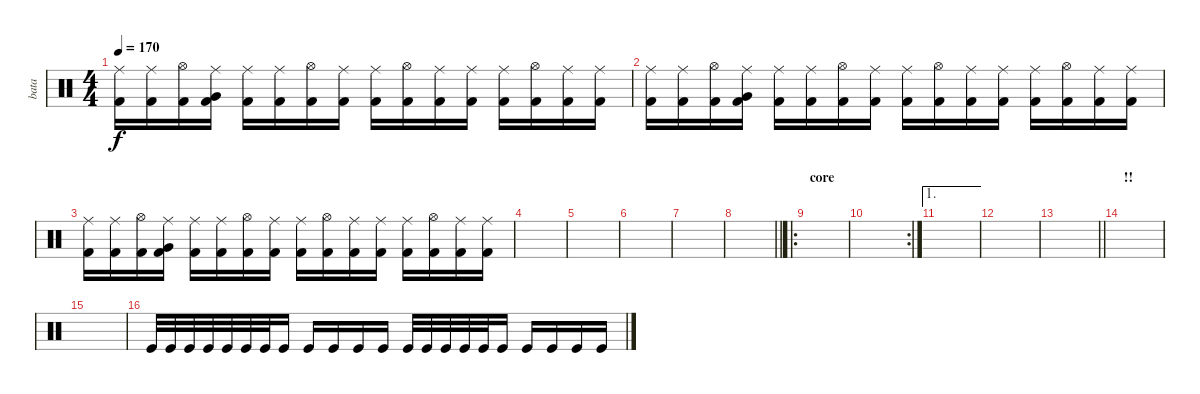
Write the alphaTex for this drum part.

\track ("bata" "bata") {instrument percussion}
\staff {score}
\articulation defaults
\ts (4 4)
\tempo 170
\clef neutral
\ks c
("Kick (hit) 2" "Ride (middle)").16{dy f} ("Kick (hit) 2" "Ride (middle)").16 ("Kick (hit) 2" "Hi-Hat (open)").16 ("Kick (hit) 2" "Very Low Tom (hit)" "Ride (middle)").16 ("Kick (hit) 2" "Ride (middle)").16 ("Kick (hit) 2" "Ride (middle)").16 ("Kick (hit) 2" "Hi-Hat (open)").16 ("Kick (hit) 2" "Ride (middle)").16 ("Kick (hit) 2" "Ride (middle)").16 ("Kick (hit) 2" "Hi-Hat (open)").16 ("Kick (hit) 2" "Ride (middle)").16 ("Kick (hit) 2" "Ride (middle)").16 ("Kick (hit) 2" "Ride (middle)").16 ("Kick (hit) 2" "Hi-Hat (open)").16 ("Kick (hit) 2" "Ride (middle)").16 ("Kick (hit) 2" "Ride (middle)").16 |
("Kick (hit) 2" "Ride (middle)").16 ("Kick (hit) 2" "Ride (middle)").16 ("Kick (hit) 2" "Hi-Hat (open)").16 ("Kick (hit) 2" "Very Low Tom (hit)" "Ride (middle)").16 ("Kick (hit) 2" "Ride (middle)").16 ("Kick (hit) 2" "Ride (middle)").16 ("Kick (hit) 2" "Hi-Hat (open)").16 ("Kick (hit) 2" "Ride (middle)").16 ("Kick (hit) 2" "Ride (middle)").16 ("Kick (hit) 2" "Hi-Hat (open)").16 ("Kick (hit) 2" "Ride (middle)").16 ("Kick (hit) 2" "Ride (middle)").16 ("Kick (hit) 2" "Ride (middle)").16 ("Kick (hit) 2" "Hi-Hat (open)").16 ("Kick (hit) 2" "Ride (middle)").16 ("Kick (hit) 2" "Ride (middle)").16 |
("Kick (hit) 2" "Ride (middle)").16 ("Kick (hit) 2" "Ride (middle)").16 ("Kick (hit) 2" "Hi-Hat (open)").16 ("Kick (hit) 2" "Very Low Tom (hit)" "Ride (middle)").16 ("Kick (hit) 2" "Ride (middle)").16 ("Kick (hit) 2" "Ride (middle)").16 ("Kick (hit) 2" "Hi-Hat (open)").16 ("Kick (hit) 2" "Ride (middle)").16 ("Kick (hit) 2" "Ride (middle)").16 ("Kick (hit) 2" "Hi-Hat (open)").16 ("Kick (hit) 2" "Ride (middle)").16 ("Kick (hit) 2" "Ride (middle)").16 ("Kick (hit) 2" "Ride (middle)").16 ("Kick (hit) 2" "Hi-Hat (open)").16 ("Kick (hit) 2" "Ride (middle)").16 ("Kick (hit) 2" "Ride (middle)").16 |
|
|
|
|
\barLineRight lightlight
|
\ro
\section ("" "core")
|
\rc 2
|
\ae 1
|
|
\barLineRight lightlight
|
\section ("" "!!")
|
|
"Kick (hit)".32 "Kick (hit)".32 "Kick (hit)".32 "Kick (hit)".32 "Kick (hit)".32 "Kick (hit)".32 "Kick (hit)".32 "Kick (hit)".16 "Kick (hit)".16 "Kick (hit)".16 "Kick (hit)".16 "Kick (hit)".16 "Kick (hit)".32 "Kick (hit)".32 "Kick (hit)".32 "Kick (hit)".32 "Kick (hit)".32 "Kick (hit)".16 "Kick (hit)".16 "Kick (hit)".16 "Kick (hit)".16 "Kick (hit)".16
